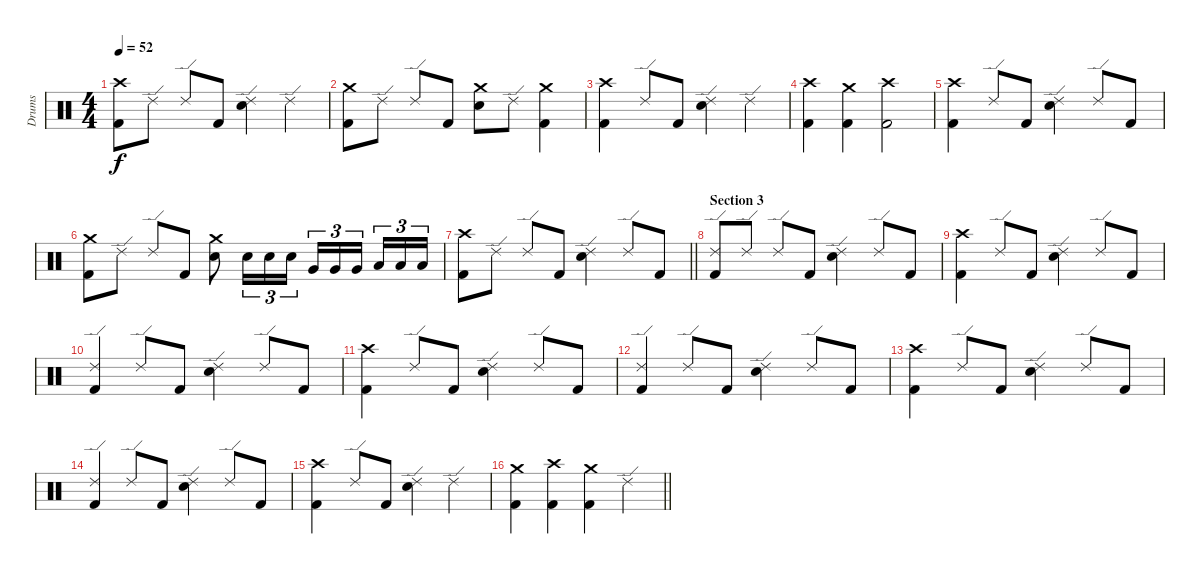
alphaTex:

\track ("Drums" "Drums") {instrument percussion}
\staff {score}
\articulation defaults
\ts (4 4)
\tempo 52
\clef neutral
\ks c
("Crash high (hit)" "Kick (hit) 2").8{dy f} "Ride (edge) 2".8 "Ride (edge) 2".8 "Kick (hit) 2".8 ("Ride (edge) 2" "Electric Snare (hit)").4 "Ride (edge) 2".4 |
("Crash medium (hit)" "Kick (hit) 2").8 "Ride (edge) 2".8 "Ride (edge) 2".8 "Kick (hit) 2".8 ("Crash medium (hit)" "Electric Snare (hit)").8 "Ride (edge) 2".8 ("Crash medium (hit)" "Kick (hit) 2").4 |
("Crash high (hit)" "Kick (hit) 2").4 "Ride (edge) 2".8 "Kick (hit) 2".8 ("Ride (edge) 2" "Electric Snare (hit)").4 "Ride (edge) 2".4 |
("Crash high (hit)" "Kick (hit) 2").4 ("Crash medium (hit)" "Kick (hit) 2").4 ("Crash high (hit)" "Kick (hit) 2").2 |
("Crash high (hit)" "Kick (hit) 2").4 "Ride (edge) 2".8 "Kick (hit) 2".8 ("Ride (edge) 2" "Electric Snare (hit)").4 "Ride (edge) 2".8 "Kick (hit) 2".8 |
("Crash medium (hit)" "Kick (hit) 2").8 "Ride (edge) 2".8 "Ride (edge) 2".8 "Kick (hit) 2".8 ("Crash medium (hit)" "Electric Snare (hit)").8 "Electric Snare (hit)".16{tu (3 2)} "Electric Snare (hit)".16{tu (3 2)} "Electric Snare (hit)".16{tu (3 2)} "Very Low Tom (hit)".16{tu (3 2)} "Very Low Tom (hit)".16{tu (3 2)} "Very Low Tom (hit)".16{tu (3 2) beam splitsecondary} "Low Tom (hit)".16{tu (3 2)} "Low Tom (hit)".16{tu (3 2)} "Low Tom (hit)".16{tu (3 2)} |
\barLineRight lightlight
("Crash high (hit)" "Kick (hit) 2").8 "Ride (edge) 2".8 "Ride (edge) 2".8 "Kick (hit) 2".8 ("Ride (edge) 2" "Electric Snare (hit)").4 "Ride (edge) 2".8 "Kick (hit) 2".8 |
\section ("" "Section 3")
("Ride (edge) 2" "Kick (hit) 2").8 "Ride (edge) 2".8 "Ride (edge) 2".8 "Kick (hit) 2".8 ("Ride (edge) 2" "Electric Snare (hit)").4 "Ride (edge) 2".8 "Kick (hit) 2".8 |
("Crash high (hit)" "Kick (hit) 2").4 "Ride (edge) 2".8 "Kick (hit) 2".8 ("Ride (edge) 2" "Electric Snare (hit)").4 "Ride (edge) 2".8 "Kick (hit) 2".8 |
("Ride (edge) 2" "Kick (hit) 2").4 "Ride (edge) 2".8 "Kick (hit) 2".8 ("Ride (edge) 2" "Electric Snare (hit)").4 "Ride (edge) 2".8 "Kick (hit) 2".8 |
("Crash high (hit)" "Kick (hit) 2").4 "Ride (edge) 2".8 "Kick (hit) 2".8 ("Ride (edge) 2" "Electric Snare (hit)").4 "Ride (edge) 2".8 "Kick (hit) 2".8 |
("Ride (edge) 2" "Kick (hit) 2").4 "Ride (edge) 2".8 "Kick (hit) 2".8 ("Ride (edge) 2" "Electric Snare (hit)").4 "Ride (edge) 2".8 "Kick (hit) 2".8 |
("Crash high (hit)" "Kick (hit) 2").4 "Ride (edge) 2".8 "Kick (hit) 2".8 ("Ride (edge) 2" "Electric Snare (hit)").4 "Ride (edge) 2".8 "Kick (hit) 2".8 |
("Ride (edge) 2" "Kick (hit) 2").4 "Ride (edge) 2".8 "Kick (hit) 2".8 ("Ride (edge) 2" "Electric Snare (hit)").4 "Ride (edge) 2".8 "Kick (hit) 2".8 |
("Crash high (hit)" "Kick (hit) 2").4 "Ride (edge) 2".8 "Kick (hit) 2".8 ("Ride (edge) 2" "Electric Snare (hit)").4 "Ride (edge) 2".4 |
\barLineRight lightlight
("Crash medium (hit)" "Kick (hit) 2").4 ("Crash high (hit)" "Kick (hit) 2").4 ("Crash medium (hit)" "Kick (hit) 2").4 "Ride (edge) 2".4
